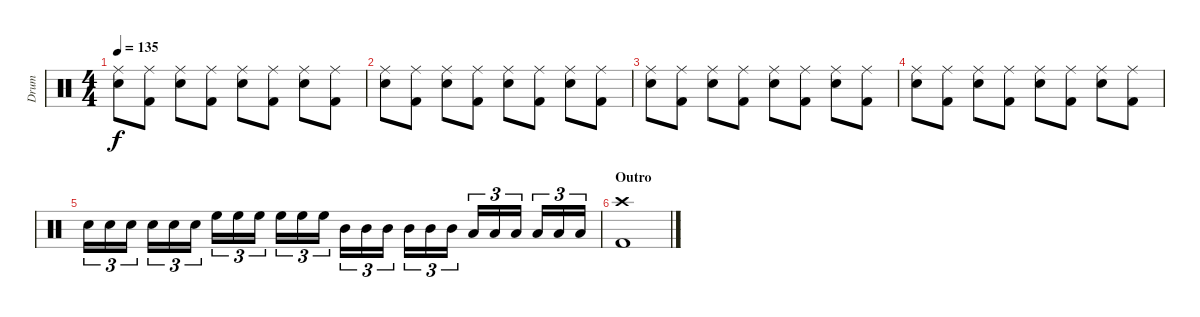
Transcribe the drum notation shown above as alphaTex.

\track ("Drum" "Drum") {instrument percussion}
\staff {score}
\articulation defaults
\ts (4 4)
\tempo 135
\clef neutral
\ks c
("Ride (middle)" "Snare (hit) 2").8{dy f} ("Ride (middle)" "Kick (hit) 2").8 ("Ride (middle)" "Snare (hit) 2").8 ("Ride (middle)" "Kick (hit) 2").8 ("Ride (middle)" "Snare (hit) 2").8 ("Ride (middle)" "Kick (hit) 2").8 ("Ride (middle)" "Snare (hit) 2").8 ("Ride (middle)" "Kick (hit) 2").8 |
("Ride (middle)" "Snare (hit) 2").8 ("Ride (middle)" "Kick (hit) 2").8 ("Ride (middle)" "Snare (hit) 2").8 ("Ride (middle)" "Kick (hit) 2").8 ("Ride (middle)" "Snare (hit) 2").8 ("Ride (middle)" "Kick (hit) 2").8 ("Ride (middle)" "Snare (hit) 2").8 ("Ride (middle)" "Kick (hit) 2").8 |
("Ride (middle)" "Snare (hit) 2").8 ("Ride (middle)" "Kick (hit) 2").8 ("Ride (middle)" "Snare (hit) 2").8 ("Ride (middle)" "Kick (hit) 2").8 ("Ride (middle)" "Snare (hit) 2").8 ("Ride (middle)" "Kick (hit) 2").8 ("Ride (middle)" "Snare (hit) 2").8 ("Ride (middle)" "Kick (hit) 2").8 |
("Ride (middle)" "Snare (hit) 2").8 ("Ride (middle)" "Kick (hit) 2").8 ("Ride (middle)" "Snare (hit) 2").8 ("Ride (middle)" "Kick (hit) 2").8 ("Ride (middle)" "Snare (hit) 2").8 ("Ride (middle)" "Kick (hit) 2").8 ("Ride (middle)" "Snare (hit) 2").8 ("Ride (middle)" "Kick (hit) 2").8 |
"Snare (hit) 2".16{tu (3 2)} "Snare (hit) 2".16{tu (3 2)} "Snare (hit) 2".16{tu (3 2)} "Snare (hit) 2".16{tu (3 2)} "Snare (hit) 2".16{tu (3 2)} "Snare (hit) 2".16{tu (3 2)} "High Floor Tom (hit)".16{tu (3 2)} "High Floor Tom (hit)".16{tu (3 2)} "High Floor Tom (hit)".16{tu (3 2)} "High Floor Tom (hit)".16{tu (3 2)} "High Floor Tom (hit)".16{tu (3 2)} "High Floor Tom (hit)".16{tu (3 2)} "Mid Tom (hit)".16{tu (3 2)} "Mid Tom (hit)".16{tu (3 2)} "Mid Tom (hit)".16{tu (3 2)} "Mid Tom (hit)".16{tu (3 2)} "Mid Tom (hit)".16{tu (3 2)} "Mid Tom (hit)".16{tu (3 2)} "Low Tom (hit)".16{tu (3 2)} "Low Tom (hit)".16{tu (3 2)} "Low Tom (hit)".16{tu (3 2)} "Low Tom (hit)".16{tu (3 2)} "Low Tom (hit)".16{tu (3 2)} "Low Tom (hit)".16{tu (3 2)} |
\section ("" "Outro")
("Crash high (hit)" "Kick (hit) 2").1
